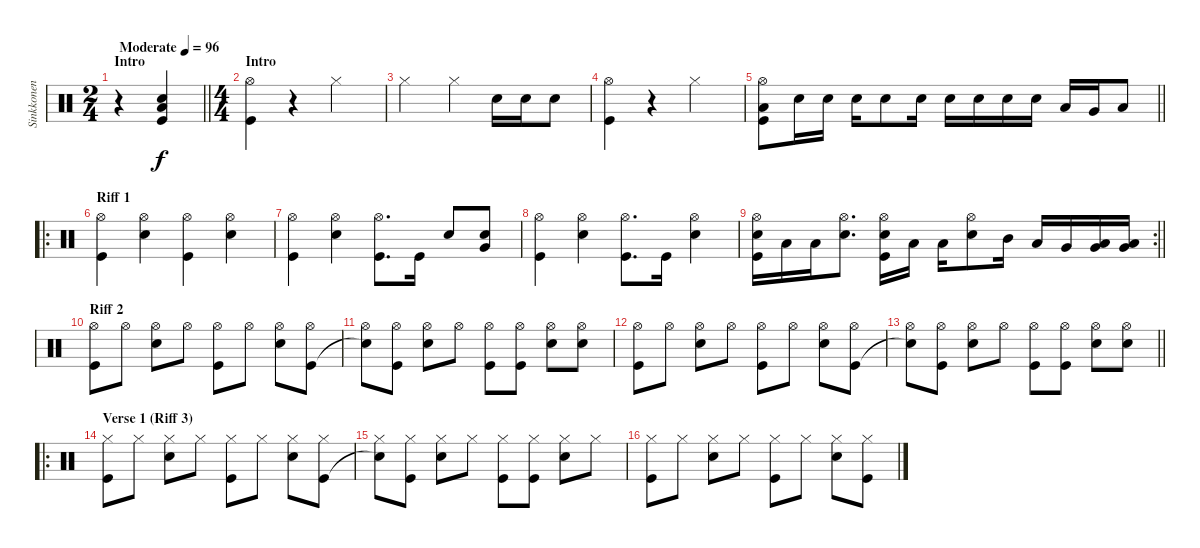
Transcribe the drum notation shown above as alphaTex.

\track ("Sinkkonen" "Sinkkonen") {instrument percussion}
\staff {score}
\articulation defaults
\ts (2 4)
\section ("" "Intro")
\tempo (96 "Moderate")
\clef neutral
\barLineRight lightlight
\ks c
r.4{dy f} ("Kick (hit)" "Electric Snare (hit)" "Low Floor Tom (hit)").4 |
\ts (4 4)
\section ("" "Intro")
("Kick (hit)" "Hi-Hat (open)").4 r.4 "Hi-Hat (closed)".2 |
"Hi-Hat (closed)".2 "Hi-Hat (closed)".4 "Electric Snare (hit)".16 "Electric Snare (hit)".16 "Electric Snare (hit)".8 |
("Kick (hit)" "Hi-Hat (open)").4 r.4 "Hi-Hat (closed)".2 |
\barLineRight lightlight
("Kick (hit)" "Low Floor Tom (hit)" "Hi-Hat (open)").8 "Electric Snare (hit)".16 "Electric Snare (hit)".16 "Electric Snare (hit)".16 "Electric Snare (hit)".8 "Electric Snare (hit)".16 "Electric Snare (hit)".16 "Electric Snare (hit)".16 "Electric Snare (hit)".16 "Electric Snare (hit)".16 "Low Tom (hit)".16 "Very Low Tom (hit)".16 "Low Floor Tom (hit)".8 |
\ro
\section ("" "Riff 1")
("Kick (hit)" "Hi-Hat (open)").4 ("Electric Snare (hit)" "Hi-Hat (open)").4 ("Kick (hit)" "Hi-Hat (open)").4 ("Electric Snare (hit)" "Hi-Hat (open)").4 |
("Kick (hit)" "Hi-Hat (open)").4 ("Electric Snare (hit)" "Hi-Hat (open)").4 ("Kick (hit)" "Hi-Hat (open)").8{d} "Kick (hit)".16 "Electric Snare (hit)".8 ("Very Low Tom (hit)" "Electric Snare (hit)").8 |
("Kick (hit)" "Hi-Hat (open)").4 ("Electric Snare (hit)" "Hi-Hat (open)").4 ("Kick (hit)" "Hi-Hat (open)").8{d} "Kick (hit)".16 ("Electric Snare (hit)" "Hi-Hat (open)").4 |
\rc 2
\barLineRight lightlight
("Kick (hit)" "Electric Snare (hit)" "Hi-Hat (open)").16 "Low Floor Tom (hit)".16 "Low Floor Tom (hit)".16 ("Electric Snare (hit)" "Hi-Hat (open)").8{d} ("Kick (hit)" "Electric Snare (hit)" "Hi-Hat (open)").16 "Low Floor Tom (hit)".16 "Low Floor Tom (hit)".16 ("Electric Snare (hit)" "Hi-Hat (open)").8 "Mid Tom (hit)".16 "Low Tom (hit)".16 "Very Low Tom (hit)".16 ("Low Floor Tom (hit)" "Very Low Tom (hit)").16 ("Low Floor Tom (hit)" "Very Low Tom (hit)").16 |
\section ("" "Riff 2")
("Kick (hit)" "Hi-Hat (open)").8 "Hi-Hat (open)".8 ("Electric Snare (hit)" "Hi-Hat (open)").8 "Hi-Hat (open)".8 ("Kick (hit)" "Hi-Hat (open)").8 "Hi-Hat (open)".8 ("Electric Snare (hit)" "Hi-Hat (open)").8 ("Kick (hit)" "Hi-Hat (open)").8 |
("Snare (hit)"{t} "Hi-Hat (open)").8 ("Kick (hit)" "Hi-Hat (open)").8 ("Electric Snare (hit)" "Hi-Hat (open)").8 "Hi-Hat (open)".8 ("Kick (hit)" "Hi-Hat (open)").8 ("Kick (hit)" "Hi-Hat (open)").8 ("Electric Snare (hit)" "Hi-Hat (open)").8 ("Electric Snare (hit)" "Hi-Hat (open)").8 |
("Kick (hit)" "Hi-Hat (open)").8 "Hi-Hat (open)".8 ("Electric Snare (hit)" "Hi-Hat (open)").8 "Hi-Hat (open)".8 ("Kick (hit)" "Hi-Hat (open)").8 "Hi-Hat (open)".8 ("Electric Snare (hit)" "Hi-Hat (open)").8 ("Kick (hit)" "Hi-Hat (open)").8 |
\barLineRight lightlight
("Snare (hit)"{t} "Hi-Hat (open)").8 ("Kick (hit)" "Hi-Hat (open)").8 ("Electric Snare (hit)" "Hi-Hat (open)").8 "Hi-Hat (open)".8 ("Kick (hit)" "Hi-Hat (open)").8 ("Kick (hit)" "Hi-Hat (open)").8 ("Electric Snare (hit)" "Hi-Hat (open)").8 ("Electric Snare (hit)" "Hi-Hat (open)").8 |
\ro
\section ("" "Verse 1 (Riff 3)")
("Kick (hit)" "Hi-Hat (closed)").8 "Hi-Hat (closed)".8 ("Electric Snare (hit)" "Hi-Hat (closed)").8 "Hi-Hat (closed)".8 ("Kick (hit)" "Hi-Hat (closed)").8 "Hi-Hat (closed)".8 ("Electric Snare (hit)" "Hi-Hat (closed)").8 ("Kick (hit)" "Hi-Hat (closed)").8 |
("Snare (hit)"{t} "Hi-Hat (closed)").8 ("Kick (hit)" "Hi-Hat (closed)").8 ("Electric Snare (hit)" "Hi-Hat (closed)").8 "Hi-Hat (closed)".8 ("Kick (hit)" "Hi-Hat (closed)").8 ("Kick (hit)" "Hi-Hat (closed)").8 ("Electric Snare (hit)" "Hi-Hat (closed)").8 "Hi-Hat (closed)".8 |
("Kick (hit)" "Hi-Hat (closed)").8 "Hi-Hat (closed)".8 ("Electric Snare (hit)" "Hi-Hat (closed)").8 "Hi-Hat (closed)".8 ("Kick (hit)" "Hi-Hat (closed)").8 "Hi-Hat (closed)".8 ("Electric Snare (hit)" "Hi-Hat (closed)").8 ("Kick (hit)" "Hi-Hat (closed)").8
